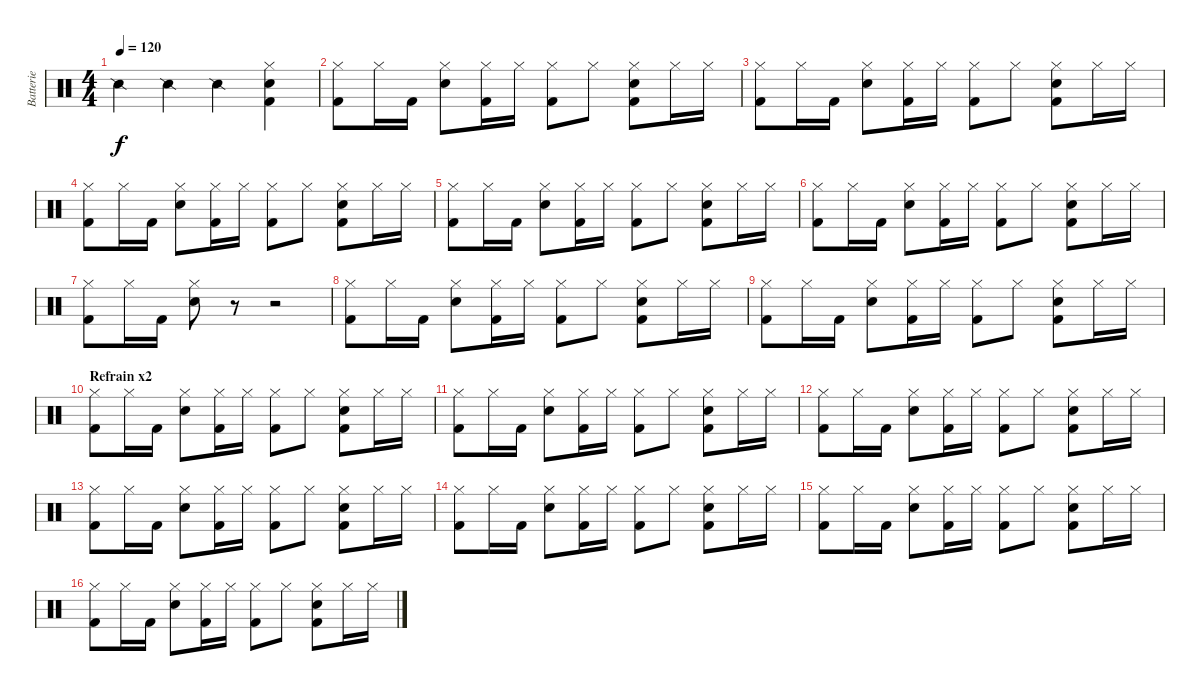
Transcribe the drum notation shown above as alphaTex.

\track ("Batterie" "Batterie") {instrument percussion}
\staff {score}
\articulation defaults
\ts (4 4)
\tempo 120
\clef neutral
\ks c "Snare (side stick) 2".4{dy f} "Snare (side stick) 2".4 "Snare (side stick) 2".4
("Kick (hit) 2" "Electric Snare (hit)" "Hi-Hat (closed)").4 |
("Kick (hit) 2" "Hi-Hat (closed)").8 "Hi-Hat (closed)".16 "Kick (hit) 2".16 ("Electric Snare (hit)" "Hi-Hat (closed)").8 ("Kick (hit) 2" "Hi-Hat (closed)").16 "Hi-Hat (closed)".16 ("Kick (hit) 2" "Hi-Hat (closed)").8 "Hi-Hat (closed)".8 ("Kick (hit) 2" "Electric Snare (hit)" "Hi-Hat (closed)").8 "Hi-Hat (closed)".16 "Hi-Hat (closed)".16 |
("Kick (hit) 2" "Hi-Hat (closed)").8 "Hi-Hat (closed)".16 "Kick (hit) 2".16 ("Electric Snare (hit)" "Hi-Hat (closed)").8 ("Kick (hit) 2" "Hi-Hat (closed)").16 "Hi-Hat (closed)".16 ("Kick (hit) 2" "Hi-Hat (closed)").8 "Hi-Hat (closed)".8 ("Kick (hit) 2" "Electric Snare (hit)" "Hi-Hat (closed)").8 "Hi-Hat (closed)".16 "Hi-Hat (closed)".16 |
("Kick (hit) 2" "Hi-Hat (closed)").8 "Hi-Hat (closed)".16 "Kick (hit) 2".16 ("Electric Snare (hit)" "Hi-Hat (closed)").8 ("Kick (hit) 2" "Hi-Hat (closed)").16 "Hi-Hat (closed)".16 ("Kick (hit) 2" "Hi-Hat (closed)").8 "Hi-Hat (closed)".8 ("Kick (hit) 2" "Electric Snare (hit)" "Hi-Hat (closed)").8 "Hi-Hat (closed)".16 "Hi-Hat (closed)".16 |
("Kick (hit) 2" "Hi-Hat (closed)").8 "Hi-Hat (closed)".16 "Kick (hit) 2".16 ("Electric Snare (hit)" "Hi-Hat (closed)").8 ("Kick (hit) 2" "Hi-Hat (closed)").16 "Hi-Hat (closed)".16 ("Kick (hit) 2" "Hi-Hat (closed)").8 "Hi-Hat (closed)".8 ("Kick (hit) 2" "Electric Snare (hit)" "Hi-Hat (closed)").8 "Hi-Hat (closed)".16 "Hi-Hat (closed)".16 |
("Kick (hit) 2" "Hi-Hat (closed)").8 "Hi-Hat (closed)".16 "Kick (hit) 2".16 ("Electric Snare (hit)" "Hi-Hat (closed)").8 ("Kick (hit) 2" "Hi-Hat (closed)").16 "Hi-Hat (closed)".16 ("Kick (hit) 2" "Hi-Hat (closed)").8 "Hi-Hat (closed)".8 ("Kick (hit) 2" "Electric Snare (hit)" "Hi-Hat (closed)").8 "Hi-Hat (closed)".16 "Hi-Hat (closed)".16 |
("Kick (hit) 2" "Hi-Hat (closed)").8 "Hi-Hat (closed)".16 "Kick (hit) 2".16 ("Electric Snare (hit)" "Hi-Hat (closed)").8 r.8 r.2 |
("Kick (hit) 2" "Hi-Hat (closed)").8 "Hi-Hat (closed)".16 "Kick (hit) 2".16 ("Electric Snare (hit)" "Hi-Hat (closed)").8 ("Kick (hit) 2" "Hi-Hat (closed)").16 "Hi-Hat (closed)".16 ("Kick (hit) 2" "Hi-Hat (closed)").8 "Hi-Hat (closed)".8 ("Kick (hit) 2" "Electric Snare (hit)" "Hi-Hat (closed)").8 "Hi-Hat (closed)".16 "Hi-Hat (closed)".16 |
("Kick (hit) 2" "Hi-Hat (closed)").8 "Hi-Hat (closed)".16 "Kick (hit) 2".16 ("Electric Snare (hit)" "Hi-Hat (closed)").8 ("Kick (hit) 2" "Hi-Hat (closed)").16 "Hi-Hat (closed)".16 ("Kick (hit) 2" "Hi-Hat (closed)").8 "Hi-Hat (closed)".8 ("Kick (hit) 2" "Electric Snare (hit)" "Hi-Hat (closed)").8 "Hi-Hat (closed)".16 "Hi-Hat (closed)".16 |
\section ("" "Refrain x2")
("Kick (hit) 2" "Hi-Hat (closed)").8 "Hi-Hat (closed)".16 "Kick (hit) 2".16 ("Electric Snare (hit)" "Hi-Hat (closed)").8 ("Kick (hit) 2" "Hi-Hat (closed)").16 "Hi-Hat (closed)".16 ("Kick (hit) 2" "Hi-Hat (closed)").8 "Hi-Hat (closed)".8 ("Kick (hit) 2" "Electric Snare (hit)" "Hi-Hat (closed)").8 "Hi-Hat (closed)".16 "Hi-Hat (closed)".16 |
("Kick (hit) 2" "Hi-Hat (closed)").8 "Hi-Hat (closed)".16 "Kick (hit) 2".16 ("Electric Snare (hit)" "Hi-Hat (closed)").8 ("Kick (hit) 2" "Hi-Hat (closed)").16 "Hi-Hat (closed)".16 ("Kick (hit) 2" "Hi-Hat (closed)").8 "Hi-Hat (closed)".8 ("Kick (hit) 2" "Electric Snare (hit)" "Hi-Hat (closed)").8 "Hi-Hat (closed)".16 "Hi-Hat (closed)".16 |
("Kick (hit) 2" "Hi-Hat (closed)").8 "Hi-Hat (closed)".16 "Kick (hit) 2".16 ("Electric Snare (hit)" "Hi-Hat (closed)").8 ("Kick (hit) 2" "Hi-Hat (closed)").16 "Hi-Hat (closed)".16 ("Kick (hit) 2" "Hi-Hat (closed)").8 "Hi-Hat (closed)".8 ("Kick (hit) 2" "Electric Snare (hit)" "Hi-Hat (closed)").8 "Hi-Hat (closed)".16 "Hi-Hat (closed)".16 |
("Kick (hit) 2" "Hi-Hat (closed)").8 "Hi-Hat (closed)".16 "Kick (hit) 2".16 ("Electric Snare (hit)" "Hi-Hat (closed)").8 ("Kick (hit) 2" "Hi-Hat (closed)").16 "Hi-Hat (closed)".16 ("Kick (hit) 2" "Hi-Hat (closed)").8 "Hi-Hat (closed)".8 ("Kick (hit) 2" "Electric Snare (hit)" "Hi-Hat (closed)").8 "Hi-Hat (closed)".16 "Hi-Hat (closed)".16 |
("Kick (hit) 2" "Hi-Hat (closed)").8 "Hi-Hat (closed)".16 "Kick (hit) 2".16 ("Electric Snare (hit)" "Hi-Hat (closed)").8 ("Kick (hit) 2" "Hi-Hat (closed)").16 "Hi-Hat (closed)".16 ("Kick (hit) 2" "Hi-Hat (closed)").8 "Hi-Hat (closed)".8 ("Kick (hit) 2" "Electric Snare (hit)" "Hi-Hat (closed)").8 "Hi-Hat (closed)".16 "Hi-Hat (closed)".16 |
("Kick (hit) 2" "Hi-Hat (closed)").8 "Hi-Hat (closed)".16 "Kick (hit) 2".16 ("Electric Snare (hit)" "Hi-Hat (closed)").8 ("Kick (hit) 2" "Hi-Hat (closed)").16 "Hi-Hat (closed)".16 ("Kick (hit) 2" "Hi-Hat (closed)").8 "Hi-Hat (closed)".8 ("Kick (hit) 2" "Electric Snare (hit)" "Hi-Hat (closed)").8 "Hi-Hat (closed)".16 "Hi-Hat (closed)".16 |
("Kick (hit) 2" "Hi-Hat (closed)").8 "Hi-Hat (closed)".16 "Kick (hit) 2".16 ("Electric Snare (hit)" "Hi-Hat (closed)").8 ("Kick (hit) 2" "Hi-Hat (closed)").16 "Hi-Hat (closed)".16 ("Kick (hit) 2" "Hi-Hat (closed)").8 "Hi-Hat (closed)".8 ("Kick (hit) 2" "Electric Snare (hit)" "Hi-Hat (closed)").8 "Hi-Hat (closed)".16 "Hi-Hat (closed)".16
